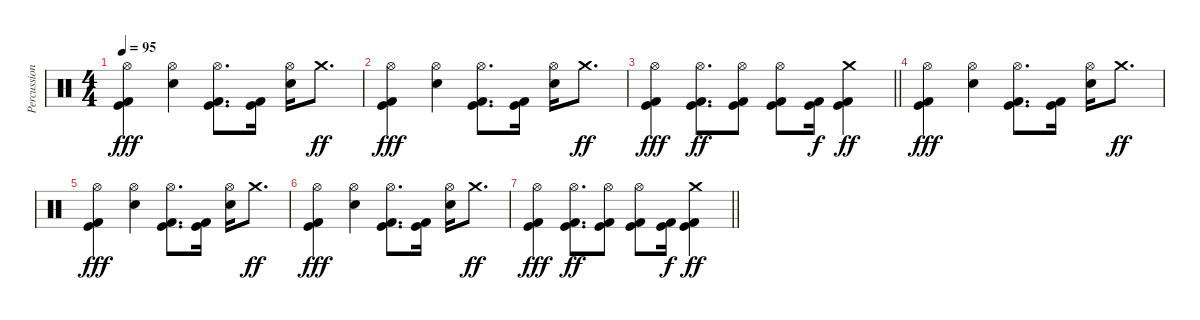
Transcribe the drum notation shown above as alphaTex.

\track ("Percussion" "Percussion") {instrument percussion}
\staff {score}
\articulation defaults
\ts (4 4)
\tempo 95
\clef neutral
\ks c
("Hi-Hat (open)" "Kick (hit)" "Kick (hit) 2").4{dy fff} ("Hi-Hat (open)" "Snare (hit) 2").4 ("Hi-Hat (open)" "Kick (hit)" "Kick (hit) 2").8{d} ("Kick (hit)" "Kick (hit) 2").16 ("Hi-Hat (open)" "Snare (hit) 2").16 "Crash medium (hit)".8{d dy ff} |
("Hi-Hat (open)" "Kick (hit)" "Kick (hit) 2").4{dy fff} ("Hi-Hat (open)" "Snare (hit) 2").4 ("Hi-Hat (open)" "Kick (hit)" "Kick (hit) 2").8{d} ("Kick (hit)" "Kick (hit) 2").16 ("Hi-Hat (open)" "Snare (hit) 2").16 "Crash medium (hit)".8{d dy ff} |
\barLineRight lightlight
("Hi-Hat (open)" "Kick (hit)" "Kick (hit) 2").4{dy fff} ("Hi-Hat (open)" "Kick (hit)" "Kick (hit) 2").8{d dy ff} ("Hi-Hat (open)" "Kick (hit)" "Kick (hit) 2").8 ("Hi-Hat (open)" "Kick (hit)" "Kick (hit) 2").8 ("Kick (hit)" "Kick (hit) 2").16{dy f} ("Crash medium (hit)" "Kick (hit)" "Kick (hit) 2").4{dy ff} |
("Hi-Hat (open)" "Kick (hit)" "Kick (hit) 2").4{dy fff} ("Hi-Hat (open)" "Snare (hit) 2").4 ("Hi-Hat (open)" "Kick (hit)" "Kick (hit) 2").8{d} ("Kick (hit)" "Kick (hit) 2").16 ("Hi-Hat (open)" "Snare (hit) 2").16 "Crash medium (hit)".8{d dy ff} |
("Hi-Hat (open)" "Kick (hit)" "Kick (hit) 2").4{dy fff} ("Hi-Hat (open)" "Snare (hit) 2").4 ("Hi-Hat (open)" "Kick (hit)" "Kick (hit) 2").8{d} ("Kick (hit)" "Kick (hit) 2").16 ("Hi-Hat (open)" "Snare (hit) 2").16 "Crash medium (hit)".8{d dy ff} |
("Hi-Hat (open)" "Kick (hit)" "Kick (hit) 2").4{dy fff} ("Hi-Hat (open)" "Snare (hit) 2").4 ("Hi-Hat (open)" "Kick (hit)" "Kick (hit) 2").8{d} ("Kick (hit)" "Kick (hit) 2").16 ("Hi-Hat (open)" "Snare (hit) 2").16 "Crash medium (hit)".8{d dy ff} |
\barLineRight lightlight
("Hi-Hat (open)" "Kick (hit)" "Kick (hit) 2").4{dy fff} ("Hi-Hat (open)" "Kick (hit)" "Kick (hit) 2").8{d dy ff} ("Hi-Hat (open)" "Kick (hit)" "Kick (hit) 2").8 ("Hi-Hat (open)" "Kick (hit)" "Kick (hit) 2").8 ("Kick (hit)" "Kick (hit) 2").16{dy f} ("Crash medium (hit)" "Kick (hit)" "Kick (hit) 2").4{dy ff}
